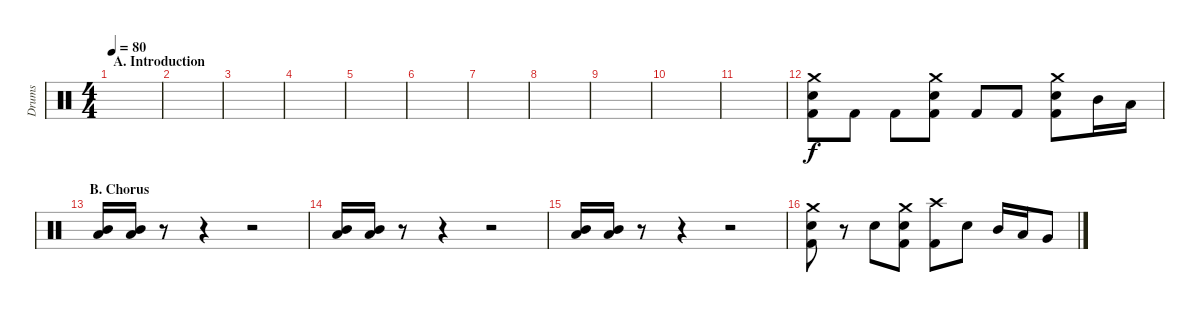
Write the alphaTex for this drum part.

\track ("Drums" "Drums") {instrument percussion}
\staff {score}
\articulation defaults
\ts (4 4)
\section ("" "A. Introduction")
\tempo 80
\clef neutral
\ks c
|
|
|
|
|
|
|
|
|
|
|
("Kick (hit) 2" "Snare (hit) 2" "Crash medium (hit)").8 "Kick (hit) 2".8 "Kick (hit) 2".8 ("Kick (hit) 2" "Snare (hit) 2" "Crash medium (hit)").8 "Kick (hit) 2".8 "Kick (hit) 2".8 ("Kick (hit) 2" "Snare (hit) 2" "Crash medium (hit)").8 "Mid Tom (hit)".16 "Low Tom (hit)".16 |
\section ("" "B. Chorus")
("Mid Tom (hit)" "Low Tom (hit)").16{bu 60} ("Mid Tom (hit)" "Low Tom (hit)").16{bu 60} r.8 r.4 r.2 |
("Mid Tom (hit)" "Low Tom (hit)").16{bu 60} ("Mid Tom (hit)" "Low Tom (hit)").16{bu 60} r.8 r.4 r.2 |
("Mid Tom (hit)" "Low Tom (hit)").16{bu 60} ("Mid Tom (hit)" "Low Tom (hit)").16{bu 60} r.8 r.4 r.2 |
("Kick (hit) 2" "Snare (hit) 2" "Crash medium (hit)").8 r.8 "Snare (hit) 2".8 ("Kick (hit) 2" "Snare (hit) 2" "Crash medium (hit)").8 ("Kick (hit) 2" "Crash high (hit)").8 "Snare (hit) 2".8 "Mid Tom (hit)".16 "Low Tom (hit)".16 "Very Low Tom (hit)".8
